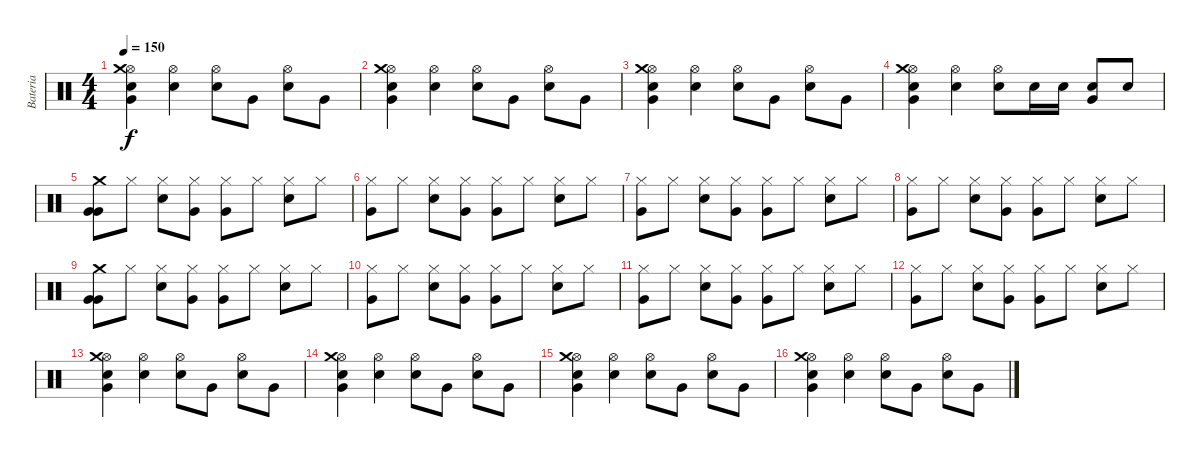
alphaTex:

\track ("Bateria" "Bateria") {instrument percussion}
\staff {score}
\articulation defaults
\ts (4 4)
\tempo 150
\clef neutral
\ks c
("Hi-Hat (open)" "Very Low Tom (hit)" "Electric Snare (hit)" "Crash medium (hit)").4{dy f} ("Hi-Hat (open)" "Electric Snare (hit)").4 ("Hi-Hat (open)" "Electric Snare (hit)").8 "Very Low Tom (hit)".8 ("Hi-Hat (open)" "Electric Snare (hit)").8 "Very Low Tom (hit)".8 |
("Hi-Hat (open)" "Very Low Tom (hit)" "Electric Snare (hit)" "Crash medium (hit)").4 ("Hi-Hat (open)" "Electric Snare (hit)").4 ("Hi-Hat (open)" "Electric Snare (hit)").8 "Very Low Tom (hit)".8 ("Hi-Hat (open)" "Electric Snare (hit)").8 "Very Low Tom (hit)".8 |
("Hi-Hat (open)" "Very Low Tom (hit)" "Electric Snare (hit)" "Crash medium (hit)").4 ("Hi-Hat (open)" "Electric Snare (hit)").4 ("Hi-Hat (open)" "Electric Snare (hit)").8 "Very Low Tom (hit)".8 ("Hi-Hat (open)" "Electric Snare (hit)").8 "Very Low Tom (hit)".8 |
("Hi-Hat (open)" "Very Low Tom (hit)" "Electric Snare (hit)" "Crash medium (hit)").4 ("Hi-Hat (open)" "Electric Snare (hit)").4 ("Hi-Hat (open)" "Electric Snare (hit)").8 "Electric Snare (hit)".16 "Electric Snare (hit)".16 ("Very Low Tom (hit)" "Electric Snare (hit)").8 "Electric Snare (hit)".8 |
("Very Low Tom (hit)" "Very Low Tom (hit)" "Crash medium (hit)").8 "Hi-Hat (closed)".8 ("Hi-Hat (closed)" "Electric Snare (hit)").8 ("Hi-Hat (closed)" "Very Low Tom (hit)").8 ("Hi-Hat (closed)" "Very Low Tom (hit)").8 "Hi-Hat (closed)".8 ("Hi-Hat (closed)" "Electric Snare (hit)").8 "Hi-Hat (closed)".8 |
("Hi-Hat (closed)" "Very Low Tom (hit)").8 "Hi-Hat (closed)".8 ("Hi-Hat (closed)" "Electric Snare (hit)").8 ("Hi-Hat (closed)" "Very Low Tom (hit)").8 ("Hi-Hat (closed)" "Very Low Tom (hit)").8 "Hi-Hat (closed)".8 ("Hi-Hat (closed)" "Electric Snare (hit)").8 "Hi-Hat (closed)".8 |
("Hi-Hat (closed)" "Very Low Tom (hit)").8 "Hi-Hat (closed)".8 ("Hi-Hat (closed)" "Electric Snare (hit)").8 ("Hi-Hat (closed)" "Very Low Tom (hit)").8 ("Hi-Hat (closed)" "Very Low Tom (hit)").8 "Hi-Hat (closed)".8 ("Hi-Hat (closed)" "Electric Snare (hit)").8 "Hi-Hat (closed)".8 |
("Hi-Hat (closed)" "Very Low Tom (hit)").8 "Hi-Hat (closed)".8 ("Hi-Hat (closed)" "Electric Snare (hit)").8 ("Hi-Hat (closed)" "Very Low Tom (hit)").8 ("Hi-Hat (closed)" "Very Low Tom (hit)").8 "Hi-Hat (closed)".8 ("Hi-Hat (closed)" "Electric Snare (hit)").8 "Hi-Hat (closed)".8 |
("Very Low Tom (hit)" "Very Low Tom (hit)" "Crash medium (hit)").8 "Hi-Hat (closed)".8 ("Hi-Hat (closed)" "Electric Snare (hit)").8 ("Hi-Hat (closed)" "Very Low Tom (hit)").8 ("Hi-Hat (closed)" "Very Low Tom (hit)").8 "Hi-Hat (closed)".8 ("Hi-Hat (closed)" "Electric Snare (hit)").8 "Hi-Hat (closed)".8 |
("Hi-Hat (closed)" "Very Low Tom (hit)").8 "Hi-Hat (closed)".8 ("Hi-Hat (closed)" "Electric Snare (hit)").8 ("Hi-Hat (closed)" "Very Low Tom (hit)").8 ("Hi-Hat (closed)" "Very Low Tom (hit)").8 "Hi-Hat (closed)".8 ("Hi-Hat (closed)" "Electric Snare (hit)").8 "Hi-Hat (closed)".8 |
("Hi-Hat (closed)" "Very Low Tom (hit)").8 "Hi-Hat (closed)".8 ("Hi-Hat (closed)" "Electric Snare (hit)").8 ("Hi-Hat (closed)" "Very Low Tom (hit)").8 ("Hi-Hat (closed)" "Very Low Tom (hit)").8 "Hi-Hat (closed)".8 ("Hi-Hat (closed)" "Electric Snare (hit)").8 "Hi-Hat (closed)".8 |
("Hi-Hat (closed)" "Very Low Tom (hit)").8 "Hi-Hat (closed)".8 ("Hi-Hat (closed)" "Electric Snare (hit)").8 ("Hi-Hat (closed)" "Very Low Tom (hit)").8 ("Hi-Hat (closed)" "Very Low Tom (hit)").8 "Hi-Hat (closed)".8 ("Hi-Hat (closed)" "Electric Snare (hit)").8 "Hi-Hat (closed)".8 |
("Hi-Hat (open)" "Very Low Tom (hit)" "Electric Snare (hit)" "Crash medium (hit)").4 ("Hi-Hat (open)" "Electric Snare (hit)").4 ("Hi-Hat (open)" "Electric Snare (hit)").8 "Very Low Tom (hit)".8 ("Hi-Hat (open)" "Electric Snare (hit)").8 "Very Low Tom (hit)".8 |
("Hi-Hat (open)" "Very Low Tom (hit)" "Electric Snare (hit)" "Crash medium (hit)").4 ("Hi-Hat (open)" "Electric Snare (hit)").4 ("Hi-Hat (open)" "Electric Snare (hit)").8 "Very Low Tom (hit)".8 ("Hi-Hat (open)" "Electric Snare (hit)").8 "Very Low Tom (hit)".8 |
("Hi-Hat (open)" "Very Low Tom (hit)" "Electric Snare (hit)" "Crash medium (hit)").4 ("Hi-Hat (open)" "Electric Snare (hit)").4 ("Hi-Hat (open)" "Electric Snare (hit)").8 "Very Low Tom (hit)".8 ("Hi-Hat (open)" "Electric Snare (hit)").8 "Very Low Tom (hit)".8 |
("Hi-Hat (open)" "Very Low Tom (hit)" "Electric Snare (hit)" "Crash medium (hit)").4 ("Hi-Hat (open)" "Electric Snare (hit)").4 ("Hi-Hat (open)" "Electric Snare (hit)").8 "Very Low Tom (hit)".8 ("Hi-Hat (open)" "Electric Snare (hit)").8 "Very Low Tom (hit)".8
